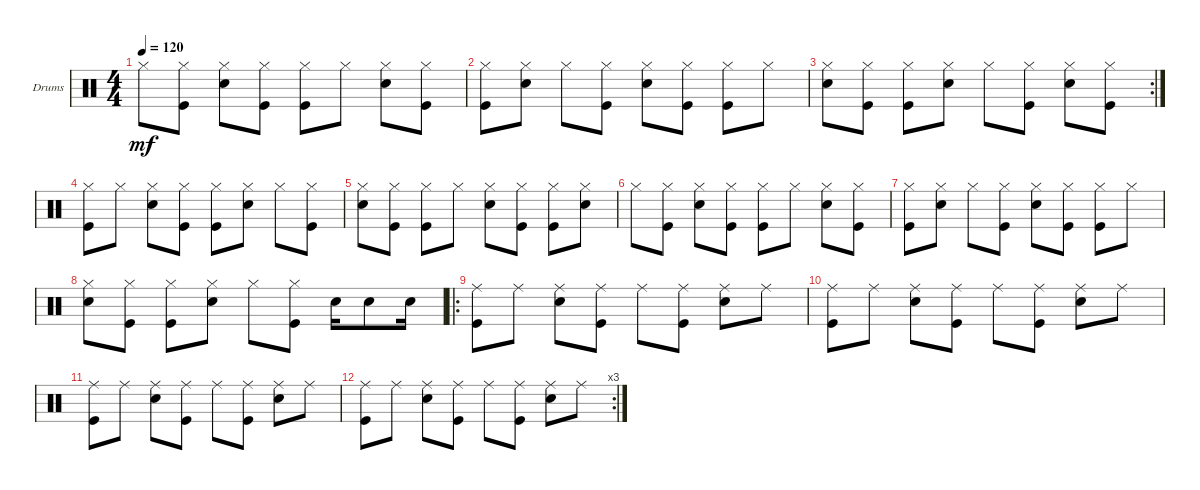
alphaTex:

\defaultSystemsLayout 4
\bracketExtendMode groupsimilarinstruments
\firstSystemTrackNameOrientation horizontal
\otherSystemsTrackNameOrientation horizontal
\track ("Drumkit" "Drums") {instrument percussion}
\staff {score}
\articulation defaults
\ts (4 4)
\tempo 120
\clef neutral
\scale
0.333333
\ks c "Hi-Hat (closed)".8{dy mf}
("Kick (hit)" "Hi-Hat (closed)").8 ("Hi-Hat (closed)" "Snare (hit) 2").8 ("Hi-Hat (closed)" "Kick (hit)").8 ("Kick (hit)" "Hi-Hat (closed)").8 "Hi-Hat (closed)".8 ("Snare (hit) 2" "Hi-Hat (closed)").8 ("Kick (hit)" "Hi-Hat (closed)").8 |
\scale
0.333333 ("Kick (hit)" "Hi-Hat (closed)").8 ("Snare (hit) 2" "Hi-Hat (closed)").8 "Hi-Hat (closed)".8 ("Kick (hit)" "Hi-Hat (closed)").8 ("Hi-Hat (closed)" "Snare (hit) 2").8 ("Hi-Hat (closed)" "Kick (hit)").8 ("Kick (hit)" "Hi-Hat (closed)").8 "Hi-Hat (closed)".8 |
\rc 2
\scale
0.333333 ("Snare (hit) 2" "Hi-Hat (closed)").8 ("Kick (hit)" "Hi-Hat (closed)").8 ("Kick (hit)" "Hi-Hat (closed)").8 ("Snare (hit) 2" "Hi-Hat (closed)").8 "Hi-Hat (closed)".8 ("Kick (hit)" "Hi-Hat (closed)").8 ("Hi-Hat (closed)" "Snare (hit) 2").8 ("Kick (hit)" "Hi-Hat (closed)").8 |
\scale
0.333333 ("Kick (hit)" "Hi-Hat (closed)").8 "Hi-Hat (closed)".8 ("Snare (hit) 2" "Hi-Hat (closed)").8 ("Kick (hit)" "Hi-Hat (closed)").8 ("Kick (hit)" "Hi-Hat (closed)").8 ("Snare (hit) 2" "Hi-Hat (closed)").8 "Hi-Hat (closed)".8 ("Kick (hit)" "Hi-Hat (closed)").8 |
\scale
0.333333 ("Hi-Hat (closed)" "Snare (hit) 2").8 ("Hi-Hat (closed)" "Kick (hit)").8 ("Kick (hit)" "Hi-Hat (closed)").8 "Hi-Hat (closed)".8 ("Snare (hit) 2" "Hi-Hat (closed)").8 ("Kick (hit)" "Hi-Hat (closed)").8 ("Kick (hit)" "Hi-Hat (closed)").8 ("Snare (hit) 2" "Hi-Hat (closed)").8 |
\scale
0.333333 "Hi-Hat (closed)".8 ("Kick (hit)" "Hi-Hat (closed)").8 ("Hi-Hat (closed)" "Snare (hit) 2").8 ("Hi-Hat (closed)" "Kick (hit)").8 ("Kick (hit)" "Hi-Hat (closed)").8 "Hi-Hat (closed)".8 ("Snare (hit) 2" "Hi-Hat (closed)").8 ("Kick (hit)" "Hi-Hat (closed)").8 |
\scale
0.333333 ("Kick (hit)" "Hi-Hat (closed)").8 ("Snare (hit) 2" "Hi-Hat (closed)").8 "Hi-Hat (closed)".8 ("Kick (hit)" "Hi-Hat (closed)").8 ("Hi-Hat (closed)" "Snare (hit) 2").8 ("Hi-Hat (closed)" "Kick (hit)").8 ("Kick (hit)" "Hi-Hat (closed)").8 "Hi-Hat (closed)".8 |
\scale
0.333333 ("Snare (hit) 2" "Hi-Hat (closed)").8 ("Kick (hit)" "Hi-Hat (closed)").8 ("Kick (hit)" "Hi-Hat (closed)").8 ("Snare (hit) 2" "Hi-Hat (closed)").8 "Hi-Hat (closed)".8 ("Kick (hit)" "Hi-Hat (closed)").8 "Snare (hit) 2".16 "Snare (hit) 2".8 "Snare (hit) 2".16 |
\ro
("Kick (hit)" "Ride (middle)").8 "Ride (middle)".8 ("Snare (hit) 2" "Ride (middle)").8 ("Ride (middle)" "Kick (hit)").8 "Ride (middle)".8 ("Kick (hit)" "Ride (middle)").8 ("Ride (middle)" "Snare (hit) 2").8 "Ride (middle)".8 |
("Kick (hit)" "Ride (middle)").8 "Ride (middle)".8 ("Snare (hit) 2" "Ride (middle)").8 ("Ride (middle)" "Kick (hit)").8 "Ride (middle)".8 ("Kick (hit)" "Ride (middle)").8 ("Ride (middle)" "Snare (hit) 2").8 "Ride (middle)".8 |
("Kick (hit)" "Ride (middle)").8 "Ride (middle)".8 ("Snare (hit) 2" "Ride (middle)").8 ("Ride (middle)" "Kick (hit)").8 "Ride (middle)".8 ("Kick (hit)" "Ride (middle)").8 ("Ride (middle)" "Snare (hit) 2").8 "Ride (middle)".8 |
\rc 3
("Kick (hit)" "Ride (middle)").8 "Ride (middle)".8 ("Snare (hit) 2" "Ride (middle)").8 ("Ride (middle)" "Kick (hit)").8 "Ride (middle)".8 ("Kick (hit)" "Ride (middle)").8 ("Ride (middle)" "Snare (hit) 2").8 "Ride (middle)".8
